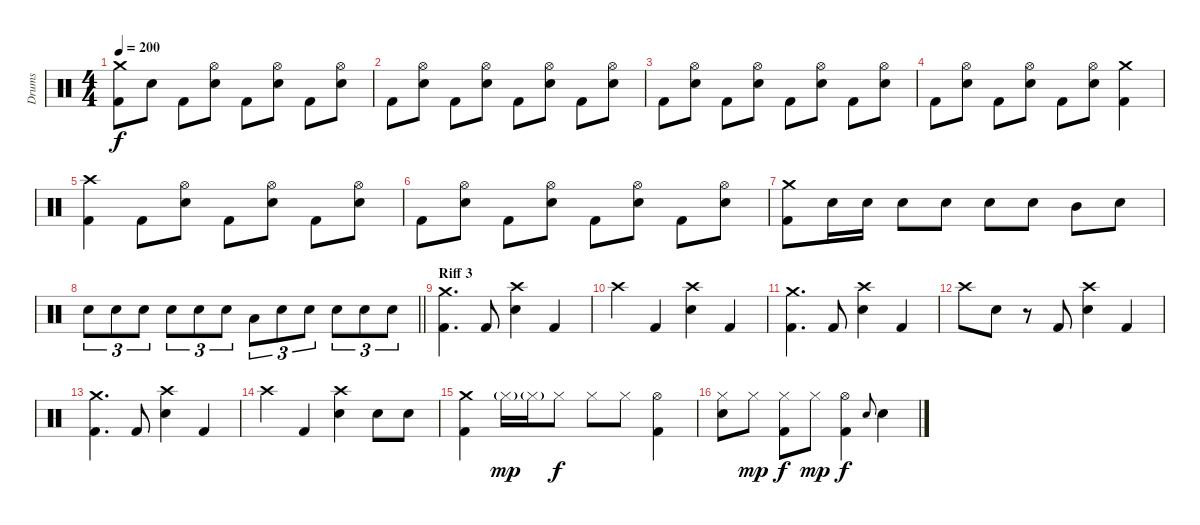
\track ("Drums" "Drums") {instrument percussion}
\staff {score}
\articulation defaults
\ts (4 4)
\tempo 200
\clef neutral
\ks c
("Crash medium (hit)" "Kick (hit) 2").8{dy f} "Electric Snare (hit)".8 "Kick (hit) 2".8 ("Hi-Hat (open)" "Electric Snare (hit)").8 "Kick (hit) 2".8 ("Hi-Hat (open)" "Electric Snare (hit)").8 "Kick (hit) 2".8 ("Hi-Hat (open)" "Electric Snare (hit)").8 |
"Kick (hit) 2".8 ("Hi-Hat (open)" "Electric Snare (hit)").8 "Kick (hit) 2".8 ("Hi-Hat (open)" "Electric Snare (hit)").8 "Kick (hit) 2".8 ("Hi-Hat (open)" "Electric Snare (hit)").8 "Kick (hit) 2".8 ("Hi-Hat (open)" "Electric Snare (hit)").8 |
"Kick (hit) 2".8 ("Hi-Hat (open)" "Electric Snare (hit)").8 "Kick (hit) 2".8 ("Hi-Hat (open)" "Electric Snare (hit)").8 "Kick (hit) 2".8 ("Hi-Hat (open)" "Electric Snare (hit)").8 "Kick (hit) 2".8 ("Hi-Hat (open)" "Electric Snare (hit)").8 |
"Kick (hit) 2".8 ("Hi-Hat (open)" "Electric Snare (hit)").8 "Kick (hit) 2".8 ("Hi-Hat (open)" "Electric Snare (hit)").8 "Kick (hit) 2".8 ("Hi-Hat (open)" "Electric Snare (hit)").8 ("Crash medium (hit)" "Kick (hit) 2").4 |
("Crash high (hit)" "Kick (hit) 2").4 "Kick (hit) 2".8 ("Hi-Hat (open)" "Electric Snare (hit)").8 "Kick (hit) 2".8 ("Hi-Hat (open)" "Electric Snare (hit)").8 "Kick (hit) 2".8 ("Hi-Hat (open)" "Electric Snare (hit)").8 |
"Kick (hit) 2".8 ("Hi-Hat (open)" "Electric Snare (hit)").8 "Kick (hit) 2".8 ("Hi-Hat (open)" "Electric Snare (hit)").8 "Kick (hit) 2".8 ("Hi-Hat (open)" "Electric Snare (hit)").8 "Kick (hit) 2".8 ("Hi-Hat (open)" "Electric Snare (hit)").8 |
("Kick (hit) 2" "Crash medium (hit)").8 "Electric Snare (hit)".16 "Electric Snare (hit)".16 "Electric Snare (hit)".8 "Electric Snare (hit)".8 "Electric Snare (hit)".8 "Electric Snare (hit)".8 "Mid Tom (hit)".8 "Electric Snare (hit)".8 |
\barLineRight lightlight "Electric Snare (hit)".8{tu (3 2)} "Electric Snare (hit)".8{tu (3 2)} "Electric Snare (hit)".8{tu (3 2)} "Electric Snare (hit)".8{tu (3 2)} "Electric Snare (hit)".8{tu (3 2)} "Electric Snare (hit)".8{tu (3 2)} "Low Tom (hit)".8{tu (3 2)} "Electric Snare (hit)".8{tu (3 2)} "Electric Snare (hit)".8{tu (3 2)} "Electric Snare (hit)".8{tu (3 2)} "Electric Snare (hit)".8{tu (3 2)} "Electric Snare (hit)".8{tu (3 2)}
|
\section ("" "Riff 3")
("Crash medium (hit)" "Kick (hit) 2").4{d} "Kick (hit) 2".8 ("Crash high (hit)" "Electric Snare (hit)").4 "Kick (hit) 2".4 |
"Crash high (hit)".4 "Kick (hit) 2".4 ("Crash high (hit)" "Electric Snare (hit)").4 "Kick (hit) 2".4 |
("Crash medium (hit)" "Kick (hit) 2").4{d} "Kick (hit) 2".8 ("Crash high (hit)" "Electric Snare (hit)").4 "Kick (hit) 2".4 |
"Crash high (hit)".8 "Electric Snare (hit)".8 r.8 "Kick (hit) 2".8 ("Crash high (hit)" "Electric Snare (hit)").4 "Kick (hit) 2".4 |
("Crash medium (hit)" "Kick (hit) 2").4{d} "Kick (hit) 2".8 ("Crash high (hit)" "Electric Snare (hit)").4 "Kick (hit) 2".4 |
"Crash high (hit)".4 "Kick (hit) 2".4 ("Crash high (hit)" "Electric Snare (hit)").4 "Electric Snare (hit)".8 "Electric Snare (hit)".8 |
("Crash medium (hit)" "Kick (hit) 2").4 "Hi-Hat (closed)"{g}.16{dy mp} "Hi-Hat (closed)"{g}.16 "Hi-Hat (closed)".8{dy f} "Hi-Hat (closed)".8 "Hi-Hat (closed)".8 ("Kick (hit) 2" "Hi-Hat (open)").4 |
("Hi-Hat (closed)" "Electric Snare (hit)").8 "Hi-Hat (closed)".8{dy mp} ("Kick (hit) 2" "Hi-Hat (closed)").8{dy f} "Hi-Hat (closed)".8{dy mp} ("Hi-Hat (open)" "Kick (hit) 2").4{dy f} "Electric Snare (hit)".8{gr onbeat} "Electric Snare (hit)".4
